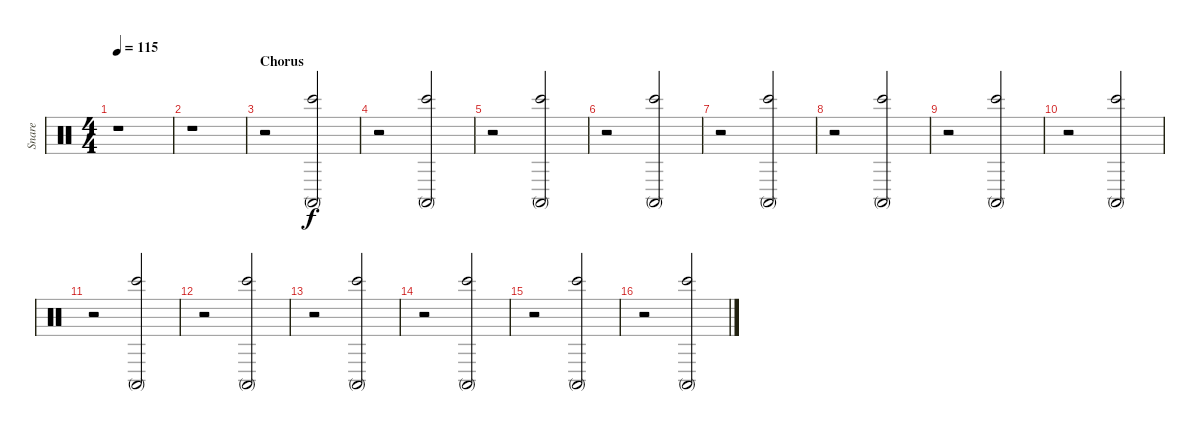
\track ("Snare" "Snare") {instrument percussion}
\staff {score}
\articulation defaults
\ts (4 4)
\tempo 115
\clef neutral
\ks c
r.1{dy f} |
r.1 |
\section ("" "Chorus")
r.2 ("Conga high (mute)" "Bongo High (hit)").2 |
r.2 ("Conga high (mute)" "Bongo High (hit)").2 |
r.2 ("Conga high (mute)" "Bongo High (hit)").2 |
r.2 ("Conga high (mute)" "Bongo High (hit)").2 |
r.2 ("Conga high (mute)" "Bongo High (hit)").2 |
r.2 ("Conga high (mute)" "Bongo High (hit)").2 |
r.2 ("Conga high (mute)" "Bongo High (hit)").2 |
r.2 ("Conga high (mute)" "Bongo High (hit)").2 |
r.2 ("Conga high (mute)" "Bongo High (hit)").2 |
r.2 ("Conga high (mute)" "Bongo High (hit)").2 |
r.2 ("Conga high (mute)" "Bongo High (hit)").2 |
r.2 ("Conga high (mute)" "Bongo High (hit)").2 |
r.2 ("Conga high (mute)" "Bongo High (hit)").2 |
r.2 ("Conga high (mute)" "Bongo High (hit)").2
